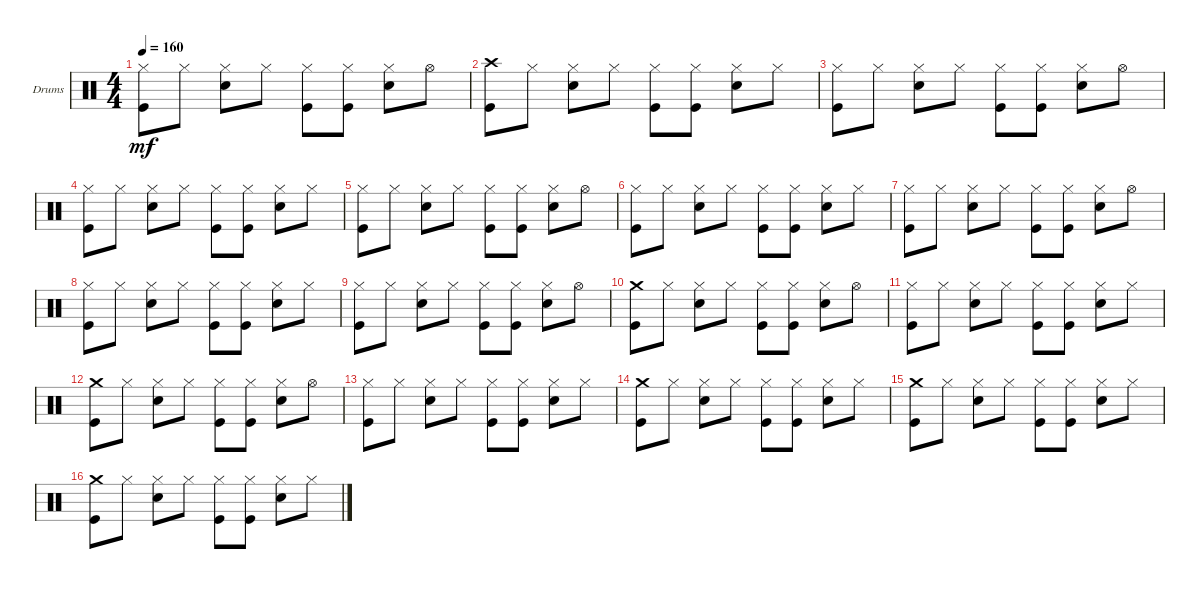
\defaultSystemsLayout 4
\bracketExtendMode groupsimilarinstruments
\firstSystemTrackNameOrientation horizontal
\otherSystemsTrackNameOrientation horizontal
\track ("Drumkit" "Drums") {instrument percussion}
\staff {score}
\articulation defaults
\ts (4 4)
\tempo 160
\clef neutral
\ks c
("Kick (hit)" "Hi-Hat (closed)").8{dy mf} "Hi-Hat (closed)".8 ("Snare (hit) 2" "Hi-Hat (closed)").8 "Hi-Hat (closed)".8 ("Hi-Hat (closed)" "Kick (hit)").8 ("Kick (hit)" "Hi-Hat (closed)").8 ("Snare (hit) 2" "Hi-Hat (closed)").8 "Hi-Hat (open)".8 |
("Kick (hit)" "Crash high (hit)").8 "Hi-Hat (closed)".8 ("Snare (hit) 2" "Hi-Hat (closed)").8 "Hi-Hat (closed)".8 ("Hi-Hat (closed)" "Kick (hit)").8 ("Kick (hit)" "Hi-Hat (closed)").8 ("Snare (hit) 2" "Hi-Hat (closed)").8 "Hi-Hat (closed)".8 |
("Kick (hit)" "Hi-Hat (closed)").8 "Hi-Hat (closed)".8 ("Snare (hit) 2" "Hi-Hat (closed)").8 "Hi-Hat (closed)".8 ("Hi-Hat (closed)" "Kick (hit)").8 ("Kick (hit)" "Hi-Hat (closed)").8 ("Snare (hit) 2" "Hi-Hat (closed)").8 "Hi-Hat (open)".8 |
("Kick (hit)" "Hi-Hat (closed)").8 "Hi-Hat (closed)".8 ("Snare (hit) 2" "Hi-Hat (closed)").8 "Hi-Hat (closed)".8 ("Hi-Hat (closed)" "Kick (hit)").8 ("Kick (hit)" "Hi-Hat (closed)").8 ("Snare (hit) 2" "Hi-Hat (closed)").8 "Hi-Hat (closed)".8 |
("Kick (hit)" "Hi-Hat (closed)").8 "Hi-Hat (closed)".8 ("Snare (hit) 2" "Hi-Hat (closed)").8 "Hi-Hat (closed)".8 ("Hi-Hat (closed)" "Kick (hit)").8 ("Kick (hit)" "Hi-Hat (closed)").8 ("Snare (hit) 2" "Hi-Hat (closed)").8 "Hi-Hat (open)".8 |
("Kick (hit)" "Hi-Hat (closed)").8 "Hi-Hat (closed)".8 ("Snare (hit) 2" "Hi-Hat (closed)").8 "Hi-Hat (closed)".8 ("Hi-Hat (closed)" "Kick (hit)").8 ("Kick (hit)" "Hi-Hat (closed)").8 ("Snare (hit) 2" "Hi-Hat (closed)").8 "Hi-Hat (closed)".8 |
("Kick (hit)" "Hi-Hat (closed)").8 "Hi-Hat (closed)".8 ("Snare (hit) 2" "Hi-Hat (closed)").8 "Hi-Hat (closed)".8 ("Hi-Hat (closed)" "Kick (hit)").8 ("Kick (hit)" "Hi-Hat (closed)").8 ("Snare (hit) 2" "Hi-Hat (closed)").8 "Hi-Hat (open)".8 |
("Kick (hit)" "Hi-Hat (closed)").8 "Hi-Hat (closed)".8 ("Snare (hit) 2" "Hi-Hat (closed)").8 "Hi-Hat (closed)".8 ("Hi-Hat (closed)" "Kick (hit)").8 ("Kick (hit)" "Hi-Hat (closed)").8 ("Snare (hit) 2" "Hi-Hat (closed)").8 "Hi-Hat (closed)".8 |
("Kick (hit)" "Hi-Hat (closed)").8 "Hi-Hat (closed)".8 ("Snare (hit) 2" "Hi-Hat (closed)").8 "Hi-Hat (closed)".8 ("Hi-Hat (closed)" "Kick (hit)").8 ("Kick (hit)" "Hi-Hat (closed)").8 ("Snare (hit) 2" "Hi-Hat (closed)").8 "Hi-Hat (open)".8 |
("Kick (hit)" "Crash medium (hit)").8 "Hi-Hat (closed)".8 ("Snare (hit) 2" "Hi-Hat (closed)").8 "Hi-Hat (closed)".8 ("Hi-Hat (closed)" "Kick (hit)").8 ("Kick (hit)" "Hi-Hat (closed)").8 ("Snare (hit) 2" "Hi-Hat (closed)").8 "Hi-Hat (open)".8 |
("Kick (hit)" "Hi-Hat (closed)").8 "Hi-Hat (closed)".8 ("Snare (hit) 2" "Hi-Hat (closed)").8 "Hi-Hat (closed)".8 ("Hi-Hat (closed)" "Kick (hit)").8 ("Kick (hit)" "Hi-Hat (closed)").8 ("Snare (hit) 2" "Hi-Hat (closed)").8 "Hi-Hat (closed)".8 |
("Kick (hit)" "Crash medium (hit)").8 "Hi-Hat (closed)".8 ("Snare (hit) 2" "Hi-Hat (closed)").8 "Hi-Hat (closed)".8 ("Hi-Hat (closed)" "Kick (hit)").8 ("Kick (hit)" "Hi-Hat (closed)").8 ("Snare (hit) 2" "Hi-Hat (closed)").8 "Hi-Hat (open)".8 |
("Kick (hit)" "Hi-Hat (closed)").8 "Hi-Hat (closed)".8 ("Snare (hit) 2" "Hi-Hat (closed)").8 "Hi-Hat (closed)".8 ("Hi-Hat (closed)" "Kick (hit)").8 ("Kick (hit)" "Hi-Hat (closed)").8 ("Snare (hit) 2" "Hi-Hat (closed)").8 "Hi-Hat (closed)".8 |
("Kick (hit)" "Crash medium (hit)").8 "Hi-Hat (closed)".8 ("Snare (hit) 2" "Hi-Hat (closed)").8 "Hi-Hat (closed)".8 ("Hi-Hat (closed)" "Kick (hit)").8 ("Kick (hit)" "Hi-Hat (closed)").8 ("Snare (hit) 2" "Hi-Hat (closed)").8 "Hi-Hat (closed)".8 |
("Kick (hit)" "Crash medium (hit)").8 "Hi-Hat (closed)".8 ("Snare (hit) 2" "Hi-Hat (closed)").8 "Hi-Hat (closed)".8 ("Hi-Hat (closed)" "Kick (hit)").8 ("Kick (hit)" "Hi-Hat (closed)").8 ("Snare (hit) 2" "Hi-Hat (closed)").8 "Hi-Hat (closed)".8 |
("Kick (hit)" "Crash medium (hit)").8 "Hi-Hat (closed)".8 ("Snare (hit) 2" "Hi-Hat (closed)").8 "Hi-Hat (closed)".8 ("Hi-Hat (closed)" "Kick (hit)").8 ("Kick (hit)" "Hi-Hat (closed)").8 ("Snare (hit) 2" "Hi-Hat (closed)").8 "Hi-Hat (closed)".8
